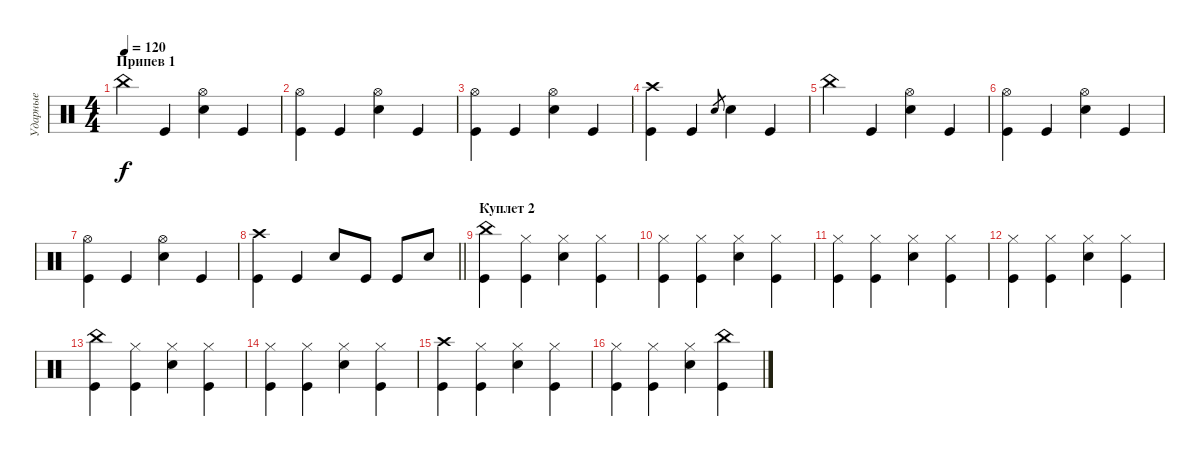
\track ("Ударные" "Ударные") {instrument percussion}
\staff {score}
\articulation defaults
\ts (4 4)
\section ("" "Припев 1")
\tempo 120
\clef neutral
\ks c "China (hit)".4{dy f} "Kick (hit)".4
("Hi-Hat (open)" "Electric Snare (hit)").4 "Kick (hit)".4 |
("Kick (hit)" "Hi-Hat (open)").4 "Kick (hit)".4 ("Hi-Hat (open)" "Electric Snare (hit)").4 "Kick (hit)".4 |
("Kick (hit)" "Hi-Hat (open)").4 "Kick (hit)".4 ("Hi-Hat (open)" "Electric Snare (hit)").4 "Kick (hit)".4 |
("Kick (hit)" "Crash high (hit)").4 "Kick (hit)".4 "Electric Snare (hit)".8{gr} "Electric Snare (hit)".4 "Kick (hit)".4 |
"China (hit)".4 "Kick (hit)".4 ("Hi-Hat (open)" "Electric Snare (hit)").4 "Kick (hit)".4 |
("Kick (hit)" "Hi-Hat (open)").4 "Kick (hit)".4 ("Hi-Hat (open)" "Electric Snare (hit)").4 "Kick (hit)".4 |
("Kick (hit)" "Hi-Hat (open)").4 "Kick (hit)".4 ("Hi-Hat (open)" "Electric Snare (hit)").4 "Kick (hit)".4 |
\barLineRight lightlight
("Kick (hit)" "Crash high (hit)").4 "Kick (hit)".4 "Electric Snare (hit)".8 "Kick (hit)".8 "Kick (hit)".8 "Electric Snare (hit)".8 |
\section ("" "Куплет 2")
("China (hit)" "Kick (hit)").4 ("Hi-Hat (closed)" "Kick (hit)").4 ("Hi-Hat (closed)" "Electric Snare (hit)").4 ("Hi-Hat (closed)" "Kick (hit)").4 |
("Hi-Hat (closed)" "Kick (hit)").4 ("Hi-Hat (closed)" "Kick (hit)").4 ("Hi-Hat (closed)" "Electric Snare (hit)").4 ("Hi-Hat (closed)" "Kick (hit)").4 |
("Hi-Hat (closed)" "Kick (hit)").4 ("Hi-Hat (closed)" "Kick (hit)").4 ("Hi-Hat (closed)" "Electric Snare (hit)").4 ("Hi-Hat (closed)" "Kick (hit)").4 |
("Hi-Hat (closed)" "Kick (hit)").4 ("Hi-Hat (closed)" "Kick (hit)").4 ("Hi-Hat (closed)" "Electric Snare (hit)").4 ("Hi-Hat (closed)" "Kick (hit)").4 |
("China (hit)" "Kick (hit)").4 ("Hi-Hat (closed)" "Kick (hit)").4 ("Hi-Hat (closed)" "Electric Snare (hit)").4 ("Hi-Hat (closed)" "Kick (hit)").4 |
("Hi-Hat (closed)" "Kick (hit)").4 ("Hi-Hat (closed)" "Kick (hit)").4 ("Hi-Hat (closed)" "Electric Snare (hit)").4 ("Hi-Hat (closed)" "Kick (hit)").4 |
("Crash high (hit)" "Kick (hit)").4 ("Hi-Hat (closed)" "Kick (hit)").4 ("Hi-Hat (closed)" "Electric Snare (hit)").4 ("Hi-Hat (closed)" "Kick (hit)").4 |
("Hi-Hat (closed)" "Kick (hit)").4 ("Hi-Hat (closed)" "Kick (hit)").4 ("Hi-Hat (closed)" "Electric Snare (hit)").4 ("China (hit)" "Kick (hit)").4
